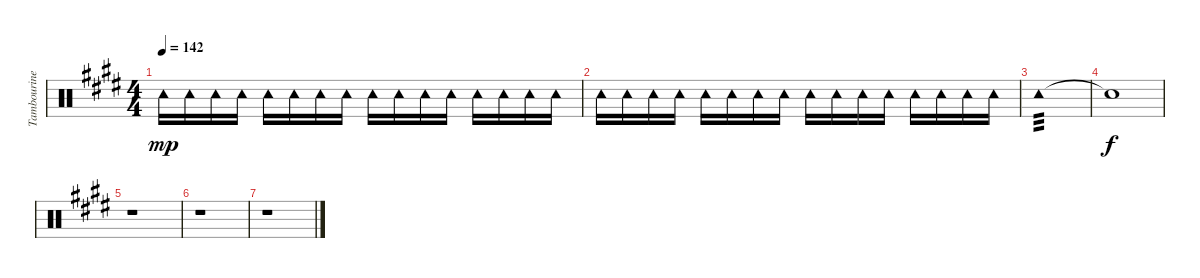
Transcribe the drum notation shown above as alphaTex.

\track ("Tambourine" "Tambourine") {instrument percussion}
\staff {score}
\articulation defaults
\ts (4 4)
\tempo 142
\clef neutral
\ks e "Tambourine (hit)".16{dy mp} "Tambourine (hit)".16 "Tambourine (hit)".16 "Tambourine (hit)".16 "Tambourine (hit)".16 "Tambourine (hit)".16 "Tambourine (hit)".16 "Tambourine (hit)".16 "Tambourine (hit)".16 "Tambourine (hit)".16 "Tambourine (hit)".16 "Tambourine (hit)".16 "Tambourine (hit)".16 "Tambourine (hit)".16 "Tambourine (hit)".16 "Tambourine (hit)".16
|
"Tambourine (hit)".16 "Tambourine (hit)".16 "Tambourine (hit)".16 "Tambourine (hit)".16 "Tambourine (hit)".16 "Tambourine (hit)".16 "Tambourine (hit)".16 "Tambourine (hit)".16 "Tambourine (hit)".16 "Tambourine (hit)".16 "Tambourine (hit)".16 "Tambourine (hit)".16 "Tambourine (hit)".16 "Tambourine (hit)".16 "Tambourine (hit)".16 "Tambourine (hit)".16 |
"Tambourine (hit)".1{tp 3} |
"Snare (hit)"{t}.1{dy f} |
r.1 |
r.1 |
r.1
